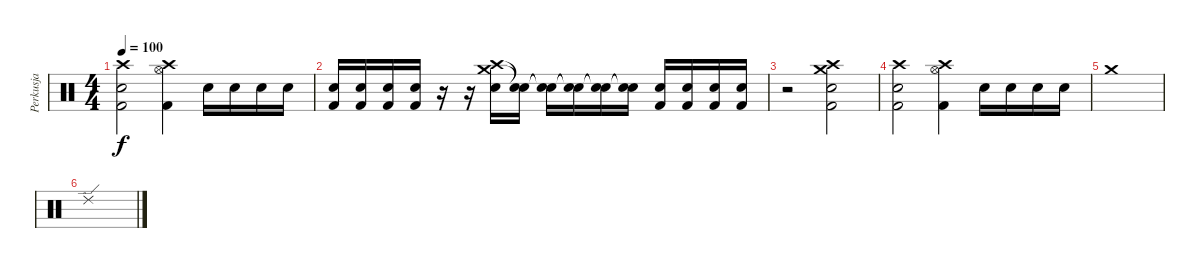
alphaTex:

\track ("Perkusja" "Perkusja") {instrument percussion}
\staff {score}
\articulation defaults
\ts (4 4)
\tempo 100
\clef neutral
\ks c
("Crash high (hit)" "Snare (hit) 2" "Kick (hit) 2").2{dy f} ("Crash high (hit)" "Hi-Hat (open)" "Kick (hit) 2").4 "Electric Snare (hit)".16 "Electric Snare (hit)".16 "Electric Snare (hit)".16 "Electric Snare (hit)".16 |
("Snare (hit) 2" "Kick (hit) 2").16 ("Snare (hit) 2" "Kick (hit) 2").16 ("Snare (hit) 2" "Kick (hit) 2").16 ("Snare (hit) 2" "Kick (hit) 2").16 r.16 r.16 ("Crash medium (hit)" "Crash high (hit)" "Electric Snare (hit)").16 ("Snare (hit)"{t} "Snare (hit)"{t}).16 ("Snare (hit)"{t} "Snare (hit)"{t}).16 ("Snare (hit)"{t} "Snare (hit)"{t}).16 ("Snare (hit)"{t} "Snare (hit)"{t}).16 ("Snare (hit)"{t} "Snare (hit)"{t}).16 ("Electric Snare (hit)" "Kick (hit) 2").16 ("Electric Snare (hit)" "Kick (hit) 2").16 ("Electric Snare (hit)" "Kick (hit) 2").16 ("Electric Snare (hit)" "Kick (hit) 2").16 |
r.2 ("Electric Snare (hit)" "Kick (hit) 2" "Crash medium (hit)" "Crash high (hit)").2 |
("Crash high (hit)" "Snare (hit) 2" "Kick (hit) 2").2 ("Crash high (hit)" "Hi-Hat (open)" "Kick (hit) 2").4 "Electric Snare (hit)".16 "Electric Snare (hit)".16 "Electric Snare (hit)".16 "Electric Snare (hit)".16 |
"Crash medium (hit)".1 |
"Ride (edge) 2".1
